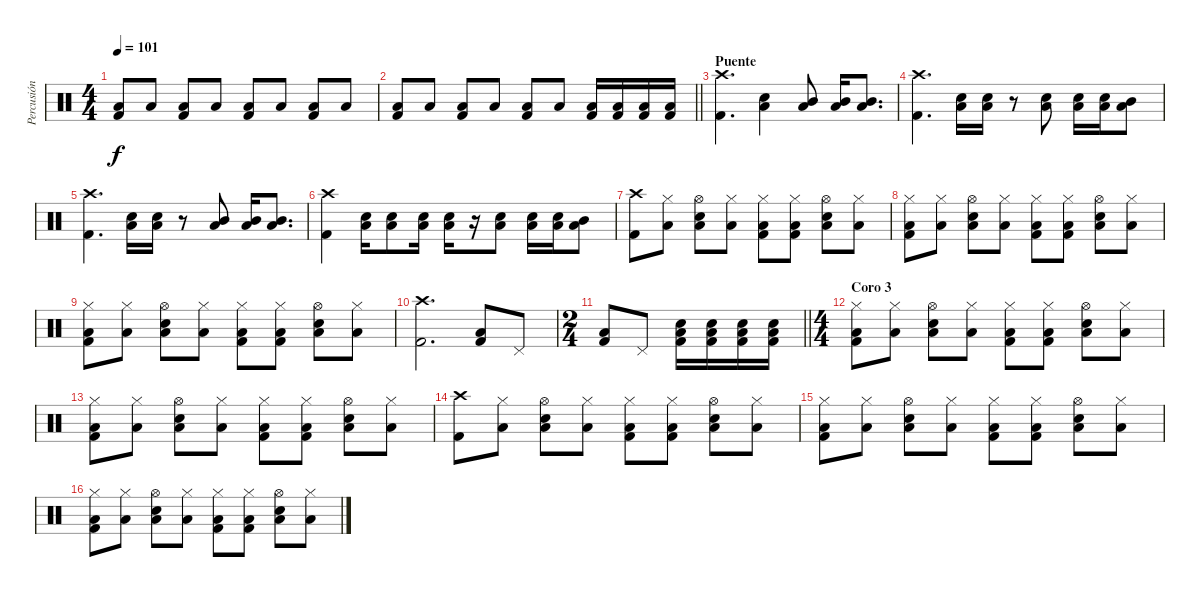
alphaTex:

\track ("Percusión" "Percusión") {instrument percussion}
\staff {score}
\articulation defaults
\ts (4 4)
\tempo 101
\clef neutral
\ks c
("Low Floor Tom (hit)" "Kick (hit) 2").8{dy f} "Low Floor Tom (hit)".8 ("Low Floor Tom (hit)" "Kick (hit) 2").8 "Low Floor Tom (hit)".8 ("Low Floor Tom (hit)" "Kick (hit) 2").8 "Low Floor Tom (hit)".8 ("Low Floor Tom (hit)" "Kick (hit) 2").8 "Low Floor Tom (hit)".8 |
\barLineRight lightlight
("Low Floor Tom (hit)" "Kick (hit) 2").8 "Low Floor Tom (hit)".8 ("Low Floor Tom (hit)" "Kick (hit) 2").8 "Low Floor Tom (hit)".8 ("Low Floor Tom (hit)" "Kick (hit) 2").8 "Low Floor Tom (hit)".8 ("Low Floor Tom (hit)" "Kick (hit) 2").16 ("Low Floor Tom (hit)" "Kick (hit) 2").16 ("Low Floor Tom (hit)" "Kick (hit) 2").16 ("Low Floor Tom (hit)" "Kick (hit) 2").16 |
\section ("" "Puente")
("Kick (hit) 2" "Crash high (hit)").4{d} ("Low Floor Tom (hit)" "Snare (hit) 2").4 ("Low Floor Tom (hit)" "Mid Tom (hit)").8 ("Low Floor Tom (hit)" "Mid Tom (hit)").16 ("Low Floor Tom (hit)" "Mid Tom (hit)").8{d} |
("Kick (hit) 2" "Crash high (hit)").4{d} ("Low Floor Tom (hit)" "Snare (hit) 2").16 ("Low Floor Tom (hit)" "Snare (hit) 2").16 r.8 ("Low Floor Tom (hit)" "Snare (hit) 2").8 ("Low Floor Tom (hit)" "Snare (hit) 2").16 ("Low Floor Tom (hit)" "Snare (hit) 2").16 ("Low Floor Tom (hit)" "Mid Tom (hit)").8 |
("Kick (hit) 2" "Crash high (hit)").4{d} ("Low Floor Tom (hit)" "Snare (hit) 2").16 ("Low Floor Tom (hit)" "Snare (hit) 2").16 r.8 ("Low Floor Tom (hit)" "Mid Tom (hit)").8 ("Low Floor Tom (hit)" "Mid Tom (hit)").16 ("Low Floor Tom (hit)" "Mid Tom (hit)").8{d} |
("Kick (hit) 2" "Crash high (hit)").4 ("Low Floor Tom (hit)" "Snare (hit) 2").16 ("Low Floor Tom (hit)" "Snare (hit) 2").8 ("Low Floor Tom (hit)" "Snare (hit) 2").16 ("Low Floor Tom (hit)" "Snare (hit) 2").16 r.16 ("Low Floor Tom (hit)" "Snare (hit) 2").8 ("Low Floor Tom (hit)" "Snare (hit) 2").16 ("Low Floor Tom (hit)" "Snare (hit) 2").16 ("Low Floor Tom (hit)" "Mid Tom (hit)").8 |
("Kick (hit) 2" "Crash high (hit)").8 ("Low Floor Tom (hit)" "Hi-Hat (closed)").8 ("Low Floor Tom (hit)" "Hi-Hat (open)" "Snare (hit) 2").8 ("Low Floor Tom (hit)" "Hi-Hat (closed)").8 ("Low Floor Tom (hit)" "Hi-Hat (closed)" "Kick (hit) 2").8 ("Low Floor Tom (hit)" "Hi-Hat (closed)" "Kick (hit) 2").8 ("Low Floor Tom (hit)" "Hi-Hat (open)" "Snare (hit) 2").8 ("Low Floor Tom (hit)" "Hi-Hat (closed)").8 |
("Low Floor Tom (hit)" "Hi-Hat (closed)" "Kick (hit) 2").8 ("Low Floor Tom (hit)" "Hi-Hat (closed)").8 ("Low Floor Tom (hit)" "Hi-Hat (open)" "Snare (hit) 2").8 ("Low Floor Tom (hit)" "Hi-Hat (closed)").8 ("Low Floor Tom (hit)" "Hi-Hat (closed)" "Kick (hit) 2").8 ("Low Floor Tom (hit)" "Hi-Hat (closed)" "Kick (hit) 2").8 ("Low Floor Tom (hit)" "Hi-Hat (open)" "Snare (hit) 2").8 ("Low Floor Tom (hit)" "Hi-Hat (closed)").8 |
("Low Floor Tom (hit)" "Hi-Hat (closed)" "Kick (hit) 2").8 ("Low Floor Tom (hit)" "Hi-Hat (closed)").8 ("Low Floor Tom (hit)" "Hi-Hat (open)" "Snare (hit) 2").8 ("Low Floor Tom (hit)" "Hi-Hat (closed)").8 ("Low Floor Tom (hit)" "Hi-Hat (closed)" "Kick (hit) 2").8 ("Low Floor Tom (hit)" "Hi-Hat (closed)" "Kick (hit) 2").8 ("Low Floor Tom (hit)" "Hi-Hat (open)" "Snare (hit) 2").8 ("Low Floor Tom (hit)" "Hi-Hat (closed)").8 |
("Kick (hit) 2" "Crash high (hit)").2{d} ("Low Floor Tom (hit)" "Kick (hit) 2").8 "Pedal Hi-Hat (hit)".8 |
\ts (2 4)
\barLineRight lightlight
("Low Floor Tom (hit)" "Kick (hit) 2").8 "Pedal Hi-Hat (hit)".8 ("Snare (hit) 2" "Low Floor Tom (hit)" "Kick (hit) 2").16 ("Snare (hit) 2" "Low Floor Tom (hit)" "Kick (hit) 2").16 ("Snare (hit) 2" "Low Floor Tom (hit)" "Kick (hit) 2").16 ("Snare (hit) 2" "Low Floor Tom (hit)" "Kick (hit) 2").16 |
\ts (4 4)
\section ("" "Coro 3")
("Low Floor Tom (hit)" "Hi-Hat (closed)" "Kick (hit) 2").8 ("Low Floor Tom (hit)" "Hi-Hat (closed)").8 ("Low Floor Tom (hit)" "Hi-Hat (open)" "Snare (hit) 2").8 ("Low Floor Tom (hit)" "Hi-Hat (closed)").8 ("Low Floor Tom (hit)" "Hi-Hat (closed)" "Kick (hit) 2").8 ("Low Floor Tom (hit)" "Hi-Hat (closed)" "Kick (hit) 2").8 ("Low Floor Tom (hit)" "Hi-Hat (open)" "Snare (hit) 2").8 ("Low Floor Tom (hit)" "Hi-Hat (closed)").8 |
("Low Floor Tom (hit)" "Hi-Hat (closed)" "Kick (hit) 2").8 ("Low Floor Tom (hit)" "Hi-Hat (closed)").8 ("Low Floor Tom (hit)" "Hi-Hat (open)" "Snare (hit) 2").8 ("Low Floor Tom (hit)" "Hi-Hat (closed)").8 ("Low Floor Tom (hit)" "Hi-Hat (closed)" "Kick (hit) 2").8 ("Low Floor Tom (hit)" "Hi-Hat (closed)" "Kick (hit) 2").8 ("Low Floor Tom (hit)" "Hi-Hat (open)" "Snare (hit) 2").8 ("Low Floor Tom (hit)" "Hi-Hat (closed)").8 |
("Kick (hit) 2" "Crash high (hit)").8 ("Low Floor Tom (hit)" "Hi-Hat (closed)").8 ("Low Floor Tom (hit)" "Hi-Hat (open)" "Snare (hit) 2").8 ("Low Floor Tom (hit)" "Hi-Hat (closed)").8 ("Low Floor Tom (hit)" "Hi-Hat (closed)" "Kick (hit) 2").8 ("Low Floor Tom (hit)" "Hi-Hat (closed)" "Kick (hit) 2").8 ("Low Floor Tom (hit)" "Hi-Hat (open)" "Snare (hit) 2").8 ("Low Floor Tom (hit)" "Hi-Hat (closed)").8 |
("Low Floor Tom (hit)" "Hi-Hat (closed)" "Kick (hit) 2").8 ("Low Floor Tom (hit)" "Hi-Hat (closed)").8 ("Low Floor Tom (hit)" "Hi-Hat (open)" "Snare (hit) 2").8 ("Low Floor Tom (hit)" "Hi-Hat (closed)").8 ("Low Floor Tom (hit)" "Hi-Hat (closed)" "Kick (hit) 2").8 ("Low Floor Tom (hit)" "Hi-Hat (closed)" "Kick (hit) 2").8 ("Low Floor Tom (hit)" "Hi-Hat (open)" "Snare (hit) 2").8 ("Low Floor Tom (hit)" "Hi-Hat (closed)").8 |
("Low Floor Tom (hit)" "Hi-Hat (closed)" "Kick (hit) 2").8 ("Low Floor Tom (hit)" "Hi-Hat (closed)").8 ("Low Floor Tom (hit)" "Hi-Hat (open)" "Snare (hit) 2").8 ("Low Floor Tom (hit)" "Hi-Hat (closed)").8 ("Low Floor Tom (hit)" "Hi-Hat (closed)" "Kick (hit) 2").8 ("Low Floor Tom (hit)" "Hi-Hat (closed)" "Kick (hit) 2").8 ("Low Floor Tom (hit)" "Hi-Hat (open)" "Snare (hit) 2").8 ("Low Floor Tom (hit)" "Hi-Hat (closed)").8
